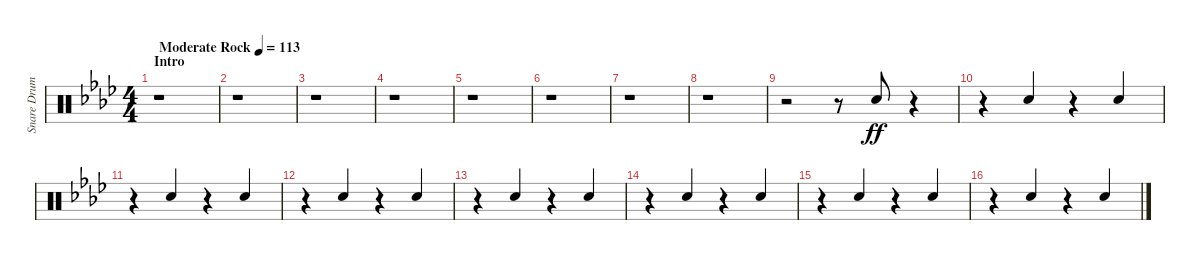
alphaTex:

\track ("Snare Drum" "Snare Drum") {instrument percussion}
\staff {score}
\articulation defaults
\ts (4 4)
\section ("" "Intro")
\tempo (113 "Moderate Rock")
\clef neutral
\ks fminor
r.1{dy ff} |
r.1 |
r.1 |
r.1 |
r.1 |
r.1 |
r.1 |
r.1 |
r.2 r.8 "Electric Snare (hit)".8{beam Up} r.4 |
r.4 "Electric Snare (hit)".4{beam Up} r.4 "Electric Snare (hit)".4{beam Up} |
r.4 "Electric Snare (hit)".4{beam Up} r.4 "Electric Snare (hit)".4{beam Up} |
r.4 "Electric Snare (hit)".4{beam Up} r.4 "Electric Snare (hit)".4{beam Up} |
r.4 "Electric Snare (hit)".4{beam Up} r.4 "Electric Snare (hit)".4{beam Up} |
r.4 "Electric Snare (hit)".4{beam Up} r.4 "Electric Snare (hit)".4{beam Up} |
r.4 "Electric Snare (hit)".4{beam Up} r.4 "Electric Snare (hit)".4{beam Up} |
r.4 "Electric Snare (hit)".4{beam Up} r.4 "Electric Snare (hit)".4{beam Up}
